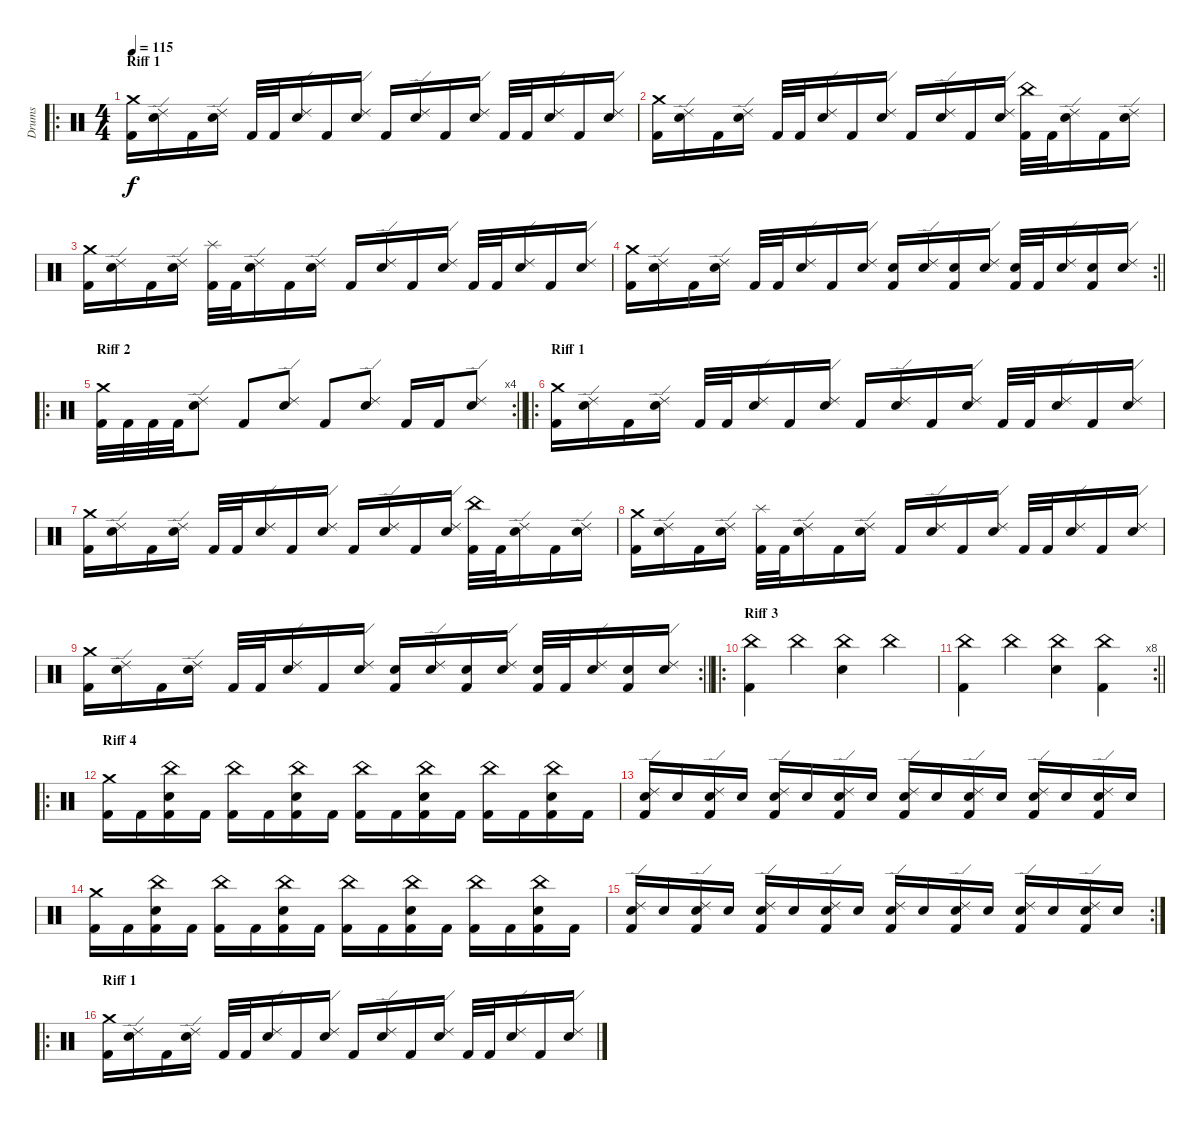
\track ("Drums" "Drums") {instrument percussion}
\staff {score}
\articulation defaults
\ro
\ts (4 4)
\section ("" "Riff 1")
\tempo 115
\clef neutral
\ks c
("Kick (hit) 2" "Crash medium (hit)").16{dy f} ("Snare (hit) 2" "Ride (edge) 2").16 "Kick (hit) 2".16 ("Snare (hit) 2" "Ride (edge) 2").16 "Kick (hit) 2".32 "Kick (hit) 2".32 ("Snare (hit) 2" "Ride (edge) 2").16 "Kick (hit) 2".16 ("Snare (hit) 2" "Ride (edge) 2").16 "Kick (hit) 2".16 ("Snare (hit) 2" "Ride (edge) 2").16 "Kick (hit) 2".16 ("Snare (hit) 2" "Ride (edge) 2").16 "Kick (hit) 2".32 "Kick (hit) 2".32 ("Snare (hit) 2" "Ride (edge) 2").16 "Kick (hit) 2".16 ("Snare (hit) 2" "Ride (edge) 2").16 |
("Kick (hit) 2" "Crash medium (hit)").16 ("Snare (hit) 2" "Ride (edge) 2").16 "Kick (hit) 2".16 ("Snare (hit) 2" "Ride (edge) 2").16 "Kick (hit) 2".32 "Kick (hit) 2".32 ("Snare (hit) 2" "Ride (edge) 2").16 "Kick (hit) 2".16 ("Snare (hit) 2" "Ride (edge) 2").16 "Kick (hit) 2".16 ("Snare (hit) 2" "Ride (edge) 2").16 "Kick (hit) 2".16 ("Snare (hit) 2" "Ride (edge) 2").16 ("Kick (hit) 2" "China (hit)").32 "Kick (hit) 2".32 ("Snare (hit) 2" "Ride (edge) 2").16 "Kick (hit) 2".16 ("Snare (hit) 2" "Ride (edge) 2").16 |
("Kick (hit) 2" "Crash medium (hit)").16 ("Snare (hit) 2" "Ride (edge) 2").16 "Kick (hit) 2".16 ("Snare (hit) 2" "Ride (edge) 2").16 ("Kick (hit) 2" "Splash (hit)").32 "Kick (hit) 2".32 ("Snare (hit) 2" "Ride (edge) 2").16 "Kick (hit) 2".16 ("Snare (hit) 2" "Ride (edge) 2").16 "Kick (hit) 2".16 ("Snare (hit) 2" "Ride (edge) 2").16 "Kick (hit) 2".16 ("Snare (hit) 2" "Ride (edge) 2").16 "Kick (hit) 2".32 "Kick (hit) 2".32 ("Snare (hit) 2" "Ride (edge) 2").16 "Kick (hit) 2".16 ("Snare (hit) 2" "Ride (edge) 2").16 |
\rc 2
\barLineRight lightlight
("Kick (hit) 2" "Crash medium (hit)").16 ("Snare (hit) 2" "Ride (edge) 2").16 "Kick (hit) 2".16 ("Snare (hit) 2" "Ride (edge) 2").16 "Kick (hit) 2".32 "Kick (hit) 2".32 ("Snare (hit) 2" "Ride (edge) 2").16 "Kick (hit) 2".16 ("Snare (hit) 2" "Ride (edge) 2").16 ("Kick (hit) 2" "Snare (hit) 2").16 ("Snare (hit) 2" "Ride (edge) 2").16 ("Kick (hit) 2" "Snare (hit) 2").16 ("Snare (hit) 2" "Ride (edge) 2").16 ("Kick (hit) 2" "Snare (hit) 2").32 "Kick (hit) 2".32 ("Snare (hit) 2" "Ride (edge) 2").16 ("Kick (hit) 2" "Snare (hit) 2").16 ("Snare (hit) 2" "Ride (edge) 2").16 |
\ro
\rc 4
\section ("" "Riff 2")
\barLineRight lightlight
("Kick (hit) 2" "Crash medium (hit)").32 "Kick (hit) 2".32 "Kick (hit) 2".32 "Kick (hit) 2".32 ("Snare (hit) 2" "Ride (edge) 2").8 "Kick (hit) 2".8 ("Snare (hit) 2" "Ride (edge) 2").8 "Kick (hit) 2".8 ("Snare (hit) 2" "Ride (edge) 2").8 "Kick (hit) 2".16 "Kick (hit) 2".16 ("Snare (hit) 2" "Ride (edge) 2").8 |
\ro
\section ("" "Riff 1")
("Kick (hit) 2" "Crash medium (hit)").16 ("Snare (hit) 2" "Ride (edge) 2").16 "Kick (hit) 2".16 ("Snare (hit) 2" "Ride (edge) 2").16 "Kick (hit) 2".32 "Kick (hit) 2".32 ("Snare (hit) 2" "Ride (edge) 2").16 "Kick (hit) 2".16 ("Snare (hit) 2" "Ride (edge) 2").16 "Kick (hit) 2".16 ("Snare (hit) 2" "Ride (edge) 2").16 "Kick (hit) 2".16 ("Snare (hit) 2" "Ride (edge) 2").16 "Kick (hit) 2".32 "Kick (hit) 2".32 ("Snare (hit) 2" "Ride (edge) 2").16 "Kick (hit) 2".16 ("Snare (hit) 2" "Ride (edge) 2").16 |
("Kick (hit) 2" "Crash medium (hit)").16 ("Snare (hit) 2" "Ride (edge) 2").16 "Kick (hit) 2".16 ("Snare (hit) 2" "Ride (edge) 2").16 "Kick (hit) 2".32 "Kick (hit) 2".32 ("Snare (hit) 2" "Ride (edge) 2").16 "Kick (hit) 2".16 ("Snare (hit) 2" "Ride (edge) 2").16 "Kick (hit) 2".16 ("Snare (hit) 2" "Ride (edge) 2").16 "Kick (hit) 2".16 ("Snare (hit) 2" "Ride (edge) 2").16 ("Kick (hit) 2" "China (hit)").32 "Kick (hit) 2".32 ("Snare (hit) 2" "Ride (edge) 2").16 "Kick (hit) 2".16 ("Snare (hit) 2" "Ride (edge) 2").16 |
("Kick (hit) 2" "Crash medium (hit)").16 ("Snare (hit) 2" "Ride (edge) 2").16 "Kick (hit) 2".16 ("Snare (hit) 2" "Ride (edge) 2").16 ("Kick (hit) 2" "Splash (hit)").32 "Kick (hit) 2".32 ("Snare (hit) 2" "Ride (edge) 2").16 "Kick (hit) 2".16 ("Snare (hit) 2" "Ride (edge) 2").16 "Kick (hit) 2".16 ("Snare (hit) 2" "Ride (edge) 2").16 "Kick (hit) 2".16 ("Snare (hit) 2" "Ride (edge) 2").16 "Kick (hit) 2".32 "Kick (hit) 2".32 ("Snare (hit) 2" "Ride (edge) 2").16 "Kick (hit) 2".16 ("Snare (hit) 2" "Ride (edge) 2").16 |
\rc 2
\barLineRight lightlight
("Kick (hit) 2" "Crash medium (hit)").16 ("Snare (hit) 2" "Ride (edge) 2").16 "Kick (hit) 2".16 ("Snare (hit) 2" "Ride (edge) 2").16 "Kick (hit) 2".32 "Kick (hit) 2".32 ("Snare (hit) 2" "Ride (edge) 2").16 "Kick (hit) 2".16 ("Snare (hit) 2" "Ride (edge) 2").16 ("Kick (hit) 2" "Snare (hit) 2").16 ("Snare (hit) 2" "Ride (edge) 2").16 ("Kick (hit) 2" "Snare (hit) 2").16 ("Snare (hit) 2" "Ride (edge) 2").16 ("Kick (hit) 2" "Snare (hit) 2").32 "Kick (hit) 2".32 ("Snare (hit) 2" "Ride (edge) 2").16 ("Kick (hit) 2" "Snare (hit) 2").16 ("Snare (hit) 2" "Ride (edge) 2").16 |
\ro
\section ("" "Riff 3")
("Kick (hit) 2" "China (hit)").4 "China (hit)".4 ("Snare (hit) 2" "China (hit)").4 "China (hit)".4 |
\rc 8
\barLineRight lightlight
("Kick (hit) 2" "China (hit)").4 "China (hit)".4 ("Snare (hit) 2" "China (hit)").4 ("Kick (hit) 2" "China (hit)").4 |
\ro
\section ("" "Riff 4")
("Kick (hit) 2" "Crash medium (hit)").16 "Kick (hit) 2".16 ("Kick (hit) 2" "Snare (hit) 2" "China (hit)").16 "Kick (hit) 2".16 ("Kick (hit) 2" "China (hit)").16 "Kick (hit) 2".16 ("Kick (hit) 2" "Snare (hit) 2" "China (hit)").16 "Kick (hit) 2".16 ("Kick (hit) 2" "China (hit)").16 "Kick (hit) 2".16 ("Kick (hit) 2" "Snare (hit) 2" "China (hit)").16 "Kick (hit) 2".16 ("Kick (hit) 2" "China (hit)").16 "Kick (hit) 2".16 ("Kick (hit) 2" "Snare (hit) 2" "China (hit)").16 "Kick (hit) 2".16 |
("Kick (hit) 2" "Snare (hit) 2" "Ride (edge) 2").16 "Snare (hit) 2".16 ("Kick (hit) 2" "Snare (hit) 2" "Ride (edge) 2").16 "Snare (hit) 2".16 ("Kick (hit) 2" "Snare (hit) 2" "Ride (edge) 2").16 "Snare (hit) 2".16 ("Kick (hit) 2" "Snare (hit) 2" "Ride (edge) 2").16 "Snare (hit) 2".16 ("Kick (hit) 2" "Snare (hit) 2" "Ride (edge) 2").16 "Snare (hit) 2".16 ("Kick (hit) 2" "Snare (hit) 2" "Ride (edge) 2").16 "Snare (hit) 2".16 ("Kick (hit) 2" "Snare (hit) 2" "Ride (edge) 2").16 "Snare (hit) 2".16 ("Kick (hit) 2" "Snare (hit) 2" "Ride (edge) 2").16 "Snare (hit) 2".16 |
("Kick (hit) 2" "Crash medium (hit)").16 "Kick (hit) 2".16 ("Kick (hit) 2" "Snare (hit) 2" "China (hit)").16 "Kick (hit) 2".16 ("Kick (hit) 2" "China (hit)").16 "Kick (hit) 2".16 ("Kick (hit) 2" "Snare (hit) 2" "China (hit)").16 "Kick (hit) 2".16 ("Kick (hit) 2" "China (hit)").16 "Kick (hit) 2".16 ("Kick (hit) 2" "Snare (hit) 2" "China (hit)").16 "Kick (hit) 2".16 ("Kick (hit) 2" "China (hit)").16 "Kick (hit) 2".16 ("Kick (hit) 2" "Snare (hit) 2" "China (hit)").16 "Kick (hit) 2".16 |
\rc 2
("Kick (hit) 2" "Snare (hit) 2" "Ride (edge) 2").16 "Snare (hit) 2".16 ("Kick (hit) 2" "Snare (hit) 2" "Ride (edge) 2").16 "Snare (hit) 2".16 ("Kick (hit) 2" "Snare (hit) 2" "Ride (edge) 2").16 "Snare (hit) 2".16 ("Kick (hit) 2" "Snare (hit) 2" "Ride (edge) 2").16 "Snare (hit) 2".16 ("Kick (hit) 2" "Snare (hit) 2" "Ride (edge) 2").16 "Snare (hit) 2".16 ("Kick (hit) 2" "Snare (hit) 2" "Ride (edge) 2").16 "Snare (hit) 2".16 ("Kick (hit) 2" "Snare (hit) 2" "Ride (edge) 2").16 "Snare (hit) 2".16 ("Kick (hit) 2" "Snare (hit) 2" "Ride (edge) 2").16 "Snare (hit) 2".16 |
\ro
\section ("" "Riff 1")
("Kick (hit) 2" "Crash medium (hit)").16 ("Snare (hit) 2" "Ride (edge) 2").16 "Kick (hit) 2".16 ("Snare (hit) 2" "Ride (edge) 2").16 "Kick (hit) 2".32 "Kick (hit) 2".32 ("Snare (hit) 2" "Ride (edge) 2").16 "Kick (hit) 2".16 ("Snare (hit) 2" "Ride (edge) 2").16 "Kick (hit) 2".16 ("Snare (hit) 2" "Ride (edge) 2").16 "Kick (hit) 2".16 ("Snare (hit) 2" "Ride (edge) 2").16 "Kick (hit) 2".32 "Kick (hit) 2".32 ("Snare (hit) 2" "Ride (edge) 2").16 "Kick (hit) 2".16 ("Snare (hit) 2" "Ride (edge) 2").16
